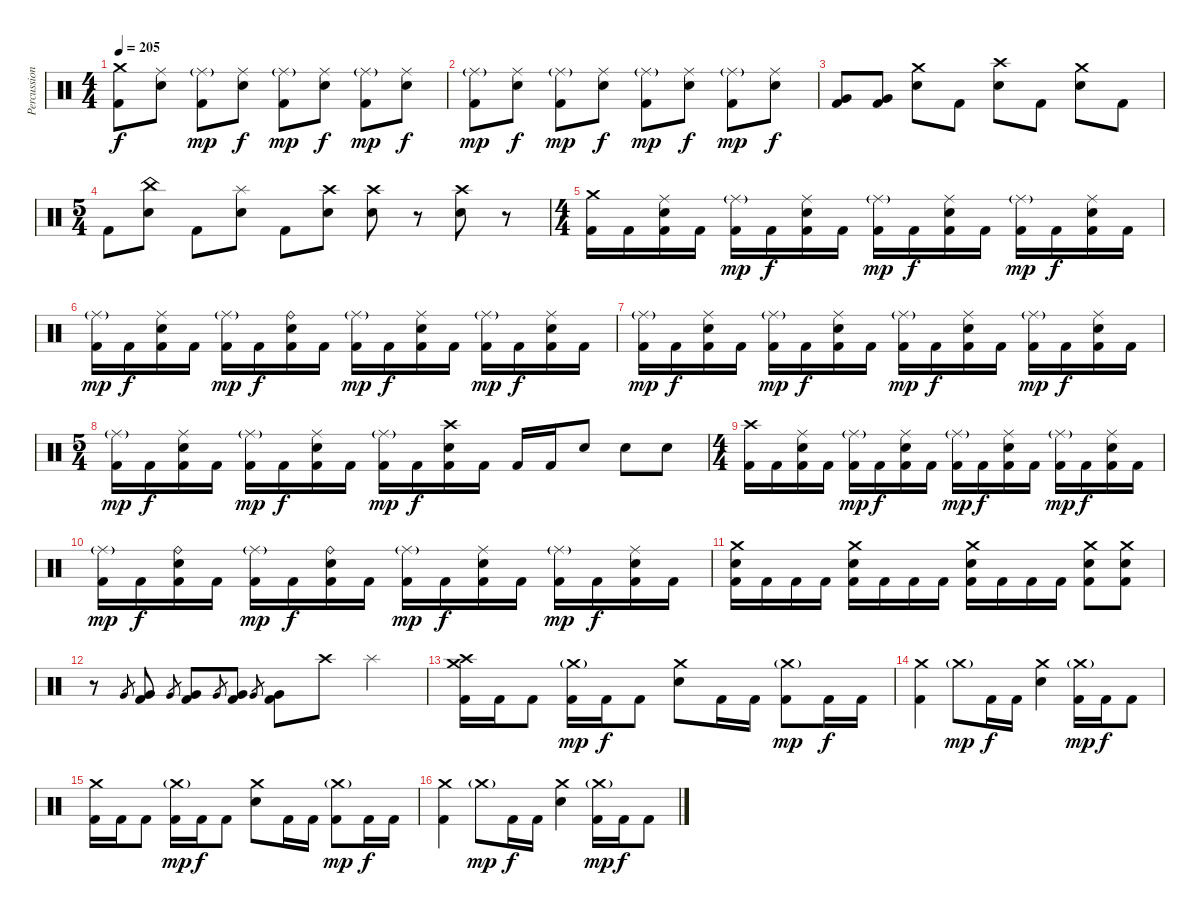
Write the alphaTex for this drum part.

\track ("Percussions" "Percussion") {instrument percussion}
\staff {score}
\articulation defaults
\ts (4 4)
\tempo 205
\clef neutral
\ks c
("Crash medium (hit)" "Kick (hit) 2").8{dy f} ("Ride (middle)" "Electric Snare (hit)").8 ("Ride (middle)"{g} "Kick (hit) 2").8{dy mp} ("Ride (middle)" "Electric Snare (hit)").8{dy f} ("Ride (middle)"{g} "Kick (hit) 2").8{dy mp} ("Ride (middle)" "Electric Snare (hit)").8{dy f} ("Ride (middle)"{g} "Kick (hit) 2").8{dy mp} ("Ride (middle)" "Electric Snare (hit)").8{dy f} |
("Ride (middle)"{g} "Kick (hit) 2").8{dy mp} ("Ride (middle)" "Electric Snare (hit)").8{dy f} ("Ride (middle)"{g} "Kick (hit) 2").8{dy mp} ("Ride (middle)" "Electric Snare (hit)").8{dy f} ("Ride (middle)"{g} "Kick (hit) 2").8{dy mp} ("Ride (middle)" "Electric Snare (hit)").8{dy f} ("Ride (middle)"{g} "Kick (hit) 2").8{dy mp} ("Ride (middle)" "Electric Snare (hit)").8{dy f} |
("Very Low Tom (hit)" "Kick (hit) 2").8 ("Very Low Tom (hit)" "Kick (hit) 2").8 ("Crash medium (hit)" "Electric Snare (hit)").8 "Kick (hit) 2".8 ("Crash high (hit)" "Electric Snare (hit)").8 "Kick (hit) 2".8 ("Crash medium (hit)" "Electric Snare (hit)").8 "Kick (hit) 2".8 |
\ts (5 4)
"Kick (hit) 2".8 ("China (hit)" "Electric Snare (hit)").8 "Kick (hit) 2".8 ("Splash (hit)" "Electric Snare (hit)").8 "Kick (hit) 2".8 ("Crash high (hit)" "Electric Snare (hit)").8 ("Crash high (hit)" "Electric Snare (hit)").8 r.8 ("Crash high (hit)" "Electric Snare (hit)").8 r.8 |
\ts (4 4)
("Crash medium (hit)" "Kick (hit) 2").16 "Kick (hit) 2".16 ("Ride (middle)" "Electric Snare (hit)" "Kick (hit) 2").16 "Kick (hit) 2".16 ("Ride (middle)"{g} "Kick (hit) 2").16{dy mp} "Kick (hit) 2".16{dy f} ("Ride (middle)" "Electric Snare (hit)" "Kick (hit) 2").16 "Kick (hit) 2".16 ("Ride (middle)"{g} "Kick (hit) 2").16{dy mp} "Kick (hit) 2".16{dy f} ("Ride (middle)" "Electric Snare (hit)" "Kick (hit) 2").16 "Kick (hit) 2".16 ("Ride (middle)"{g} "Kick (hit) 2").16{dy mp} "Kick (hit) 2".16{dy f} ("Ride (middle)" "Electric Snare (hit)" "Kick (hit) 2").16 "Kick (hit) 2".16 |
("Ride (middle)"{g} "Kick (hit) 2").16{dy mp} "Kick (hit) 2".16{dy f} ("Ride (middle)" "Electric Snare (hit)" "Kick (hit) 2").16 "Kick (hit) 2".16 ("Ride (middle)"{g} "Kick (hit) 2").16{dy mp} "Kick (hit) 2".16{dy f} ("Ride (bell)" "Electric Snare (hit)" "Kick (hit) 2").16 "Kick (hit) 2".16 ("Ride (middle)"{g} "Kick (hit) 2").16{dy mp} "Kick (hit) 2".16{dy f} ("Ride (middle)" "Electric Snare (hit)" "Kick (hit) 2").16 "Kick (hit) 2".16 ("Ride (middle)"{g} "Kick (hit) 2").16{dy mp} "Kick (hit) 2".16{dy f} ("Ride (middle)" "Electric Snare (hit)" "Kick (hit) 2").16 "Kick (hit) 2".16 |
("Ride (middle)"{g} "Kick (hit) 2").16{dy mp} "Kick (hit) 2".16{dy f} ("Ride (middle)" "Electric Snare (hit)" "Kick (hit) 2").16 "Kick (hit) 2".16 ("Ride (middle)"{g} "Kick (hit) 2").16{dy mp} "Kick (hit) 2".16{dy f} ("Ride (middle)" "Electric Snare (hit)" "Kick (hit) 2").16 "Kick (hit) 2".16 ("Ride (middle)"{g} "Kick (hit) 2").16{dy mp} "Kick (hit) 2".16{dy f} ("Ride (middle)" "Electric Snare (hit)" "Kick (hit) 2").16 "Kick (hit) 2".16 ("Ride (middle)"{g} "Kick (hit) 2").16{dy mp} "Kick (hit) 2".16{dy f} ("Ride (middle)" "Electric Snare (hit)" "Kick (hit) 2").16 "Kick (hit) 2".16 |
\ts (5 4)
("Ride (middle)"{g} "Kick (hit) 2").16{dy mp} "Kick (hit) 2".16{dy f} ("Ride (middle)" "Electric Snare (hit)" "Kick (hit) 2").16 "Kick (hit) 2".16 ("Ride (middle)"{g} "Kick (hit) 2").16{dy mp} "Kick (hit) 2".16{dy f} ("Ride (middle)" "Electric Snare (hit)" "Kick (hit) 2").16 "Kick (hit) 2".16 ("Ride (middle)"{g} "Kick (hit) 2").16{dy mp} "Kick (hit) 2".16{dy f} ("Crash high (hit)" "Electric Snare (hit)" "Kick (hit) 2").16 "Kick (hit) 2".16 "Kick (hit) 2".16 "Kick (hit) 2".16 "Electric Snare (hit)".8 "Electric Snare (hit)".8 "Electric Snare (hit)".8 |
\ts (4 4)
("Crash high (hit)" "Kick (hit) 2").16 "Kick (hit) 2".16 ("Ride (middle)" "Electric Snare (hit)" "Kick (hit) 2").16 "Kick (hit) 2".16 ("Ride (middle)"{g} "Kick (hit) 2").16{dy mp} "Kick (hit) 2".16{dy f} ("Ride (middle)" "Electric Snare (hit)" "Kick (hit) 2").16 "Kick (hit) 2".16 ("Ride (middle)"{g} "Kick (hit) 2").16{dy mp} "Kick (hit) 2".16{dy f} ("Ride (middle)" "Electric Snare (hit)" "Kick (hit) 2").16 "Kick (hit) 2".16 ("Ride (middle)"{g} "Kick (hit) 2").16{dy mp} "Kick (hit) 2".16{dy f} ("Ride (middle)" "Electric Snare (hit)" "Kick (hit) 2").16 "Kick (hit) 2".16 |
("Ride (middle)"{g} "Kick (hit) 2").16{dy mp} "Kick (hit) 2".16{dy f} ("Ride (bell)" "Electric Snare (hit)" "Kick (hit) 2").16 "Kick (hit) 2".16 ("Ride (middle)"{g} "Kick (hit) 2").16{dy mp} "Kick (hit) 2".16{dy f} ("Ride (bell)" "Electric Snare (hit)" "Kick (hit) 2").16 "Kick (hit) 2".16 ("Ride (middle)"{g} "Kick (hit) 2").16{dy mp} "Kick (hit) 2".16{dy f} ("Ride (middle)" "Electric Snare (hit)" "Kick (hit) 2").16 "Kick (hit) 2".16 ("Ride (middle)"{g} "Kick (hit) 2").16{dy mp} "Kick (hit) 2".16{dy f} ("Ride (middle)" "Electric Snare (hit)" "Kick (hit) 2").16 "Kick (hit) 2".16 |
("Crash medium (hit)" "Electric Snare (hit)" "Kick (hit) 2").16 "Kick (hit) 2".16 "Kick (hit) 2".16 "Kick (hit) 2".16 ("Crash medium (hit)" "Electric Snare (hit)" "Kick (hit) 2").16 "Kick (hit) 2".16 "Kick (hit) 2".16 "Kick (hit) 2".16 ("Crash medium (hit)" "Electric Snare (hit)" "Kick (hit) 2").16 "Kick (hit) 2".16 "Kick (hit) 2".16 "Kick (hit) 2".16 ("Crash medium (hit)" "Electric Snare (hit)" "Kick (hit) 2").8 ("Crash medium (hit)" "Electric Snare (hit)" "Kick (hit) 2").8 |
r.8 "Very Low Tom (hit)".8{gr} ("Very Low Tom (hit)" "Kick (hit) 2").8 "Very Low Tom (hit)".8{gr} ("Very Low Tom (hit)" "Kick (hit) 2").8 "Very Low Tom (hit)".8{gr} ("Very Low Tom (hit)" "Kick (hit) 2").8 "Very Low Tom (hit)".8{gr} ("Very Low Tom (hit)" "Kick (hit) 2").8 "Crash high (hit)".8 "Splash (hit)".4 |
("Crash medium (hit)" "Crash high (hit)" "Kick (hit) 2").16 "Kick (hit) 2".16 "Kick (hit) 2".8 ("Crash medium (hit)"{g} "Kick (hit) 2").16{dy mp} "Kick (hit) 2".16{dy f} "Kick (hit) 2".8 ("Crash medium (hit)" "Electric Snare (hit)").8 "Kick (hit) 2".16 "Kick (hit) 2".16 ("Crash medium (hit)"{g} "Kick (hit) 2").8{dy mp} "Kick (hit) 2".16{dy f} "Kick (hit) 2".16 |
("Crash medium (hit)" "Kick (hit) 2").4 "Crash medium (hit)"{g}.8{dy mp} "Kick (hit) 2".16{dy f} "Kick (hit) 2".16 ("Crash medium (hit)" "Electric Snare (hit)").4 ("Crash medium (hit)"{g} "Kick (hit) 2").16{dy mp} "Kick (hit) 2".16{dy f} "Kick (hit) 2".8 |
("Crash medium (hit)" "Kick (hit) 2").16 "Kick (hit) 2".16 "Kick (hit) 2".8 ("Crash medium (hit)"{g} "Kick (hit) 2").16{dy mp} "Kick (hit) 2".16{dy f} "Kick (hit) 2".8 ("Crash medium (hit)" "Electric Snare (hit)").8 "Kick (hit) 2".16 "Kick (hit) 2".16 ("Crash medium (hit)"{g} "Kick (hit) 2").8{dy mp} "Kick (hit) 2".16{dy f} "Kick (hit) 2".16 |
("Crash medium (hit)" "Kick (hit) 2").4 "Crash medium (hit)"{g}.8{dy mp} "Kick (hit) 2".16{dy f} "Kick (hit) 2".16 ("Crash medium (hit)" "Electric Snare (hit)").4 ("Crash medium (hit)"{g} "Kick (hit) 2").16{dy mp} "Kick (hit) 2".16{dy f} "Kick (hit) 2".8
